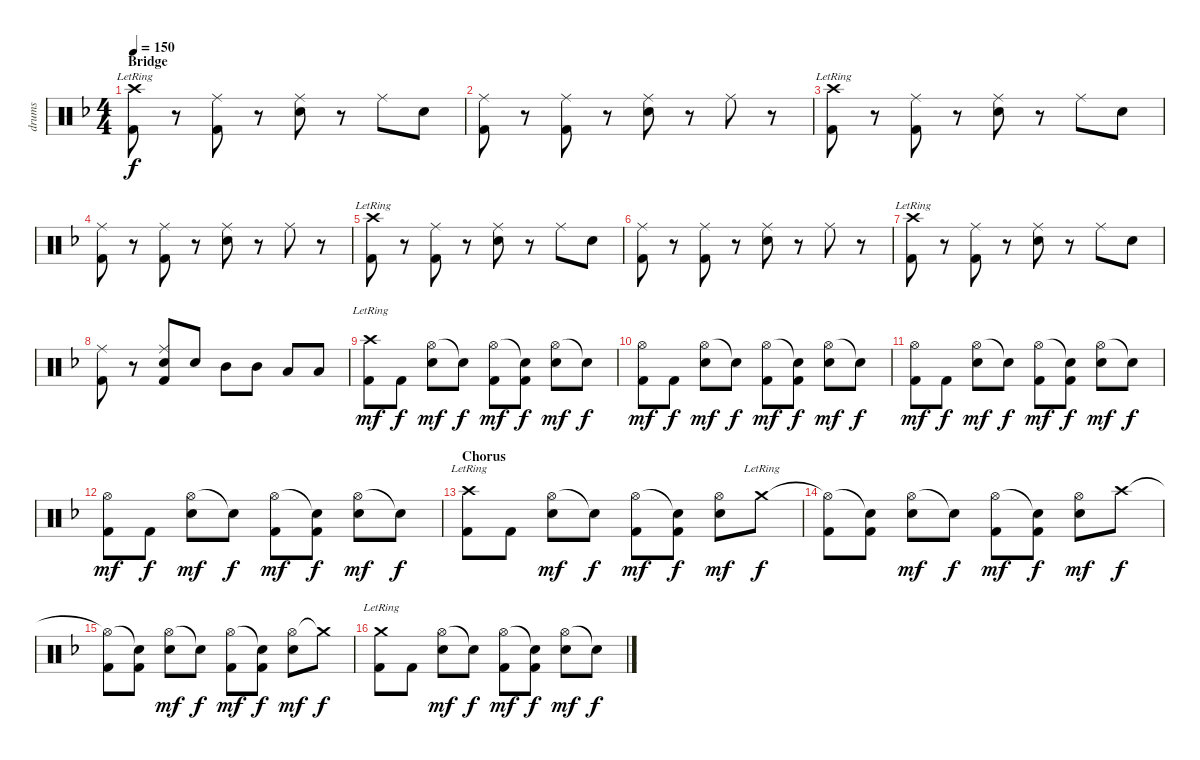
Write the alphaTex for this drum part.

\track ("drums" "drums") {instrument percussion}
\staff {score}
\articulation defaults
\ts (4 4)
\section ("" "Bridge")
\tempo 150
\clef neutral
\ks dminor
("Crash high (hit)"{lr} "Kick (hit) 2").8{dy f} r.8 ("Ride (middle)" "Kick (hit) 2").8 r.8 ("Ride (middle)" "Electric Snare (hit)").8 r.8 "Ride (middle)".8 "Electric Snare (hit)".8 |
("Ride (middle)" "Kick (hit) 2").8 r.8 ("Ride (middle)" "Kick (hit) 2").8 r.8 ("Ride (middle)" "Electric Snare (hit)").8 r.8 "Ride (middle)".8 r.8 |
("Crash high (hit)"{lr} "Kick (hit) 2").8 r.8 ("Ride (middle)" "Kick (hit) 2").8 r.8 ("Ride (middle)" "Electric Snare (hit)").8 r.8 "Ride (middle)".8 "Electric Snare (hit)".8 |
("Ride (middle)" "Kick (hit) 2").8 r.8 ("Ride (middle)" "Kick (hit) 2").8 r.8 ("Ride (middle)" "Electric Snare (hit)").8 r.8 "Ride (middle)".8 r.8 |
("Crash high (hit)"{lr} "Kick (hit) 2").8 r.8 ("Ride (middle)" "Kick (hit) 2").8 r.8 ("Ride (middle)" "Electric Snare (hit)").8 r.8 "Ride (middle)".8 "Electric Snare (hit)".8 |
("Ride (middle)" "Kick (hit) 2").8 r.8 ("Ride (middle)" "Kick (hit) 2").8 r.8 ("Ride (middle)" "Electric Snare (hit)").8 r.8 "Ride (middle)".8 r.8 |
("Crash high (hit)"{lr} "Kick (hit) 2").8 r.8 ("Ride (middle)" "Kick (hit) 2").8 r.8 ("Ride (middle)" "Electric Snare (hit)").8 r.8 "Ride (middle)".8 "Electric Snare (hit)".8 |
("Ride (middle)" "Kick (hit) 2").8 r.8 ("Ride (middle)" "Electric Snare (hit)" "Kick (hit) 2").8 "Electric Snare (hit)".8 "Mid Tom (hit)".8 "Mid Tom (hit)".8 "Low Tom (hit)".8 "Low Tom (hit)".8 |
("Crash high (hit)"{lr} "Kick (hit) 2").8{dy mf} "Kick (hit) 2".8{dy f} ("Hi-Hat (open)" "Electric Snare (hit)").8{dy mf} "Snare (hit)"{t}.8{dy f} ("Hi-Hat (open)" "Kick (hit) 2").8{dy mf} ("Snare (hit)"{t} "Kick (hit) 2").8{dy f} ("Hi-Hat (open)" "Electric Snare (hit)").8{dy mf} "Snare (hit)"{t}.8{dy f} |
("Hi-Hat (open)" "Kick (hit) 2").8{dy mf} "Kick (hit) 2".8{dy f} ("Hi-Hat (open)" "Electric Snare (hit)").8{dy mf} "Snare (hit)"{t}.8{dy f} ("Hi-Hat (open)" "Kick (hit) 2").8{dy mf} ("Snare (hit)"{t} "Kick (hit) 2").8{dy f} ("Hi-Hat (open)" "Electric Snare (hit)").8{dy mf} "Snare (hit)"{t}.8{dy f} |
("Hi-Hat (open)" "Kick (hit) 2").8{dy mf} "Kick (hit) 2".8{dy f} ("Hi-Hat (open)" "Electric Snare (hit)").8{dy mf} "Snare (hit)"{t}.8{dy f} ("Hi-Hat (open)" "Kick (hit) 2").8{dy mf} ("Snare (hit)"{t} "Kick (hit) 2").8{dy f} ("Hi-Hat (open)" "Electric Snare (hit)").8{dy mf} "Snare (hit)"{t}.8{dy f} |
("Hi-Hat (open)" "Kick (hit) 2").8{dy mf} "Kick (hit) 2".8{dy f} ("Hi-Hat (open)" "Electric Snare (hit)").8{dy mf} "Snare (hit)"{t}.8{dy f} ("Hi-Hat (open)" "Kick (hit) 2").8{dy mf} ("Snare (hit)"{t} "Kick (hit) 2").8{dy f} ("Hi-Hat (open)" "Electric Snare (hit)").8{dy mf} "Snare (hit)"{t}.8{dy f} |
\section ("" "Chorus")
("Crash high (hit)"{lr} "Kick (hit) 2").8 "Kick (hit) 2".8 ("Hi-Hat (open)" "Electric Snare (hit)").8{dy mf} "Snare (hit)"{t}.8{dy f} ("Hi-Hat (open)" "Kick (hit) 2").8{dy mf} ("Snare (hit)"{t} "Kick (hit) 2").8{dy f} ("Hi-Hat (open)" "Electric Snare (hit)").8{dy mf} "Crash medium (hit)"{lr}.8{dy f} |
("Hi-Hat (open)"{t} "Kick (hit) 2").8 ("Snare (hit)"{t} "Kick (hit) 2").8 ("Hi-Hat (open)" "Electric Snare (hit)").8{dy mf} "Snare (hit)"{t}.8{dy f} ("Hi-Hat (open)" "Kick (hit) 2").8{dy mf} ("Snare (hit)"{t} "Kick (hit) 2").8{dy f} ("Hi-Hat (open)" "Electric Snare (hit)").8{dy mf} "Crash high (hit)".8{dy f} |
("Hi-Hat (open)"{t} "Kick (hit) 2").8 ("Snare (hit)"{t} "Kick (hit) 2").8 ("Hi-Hat (open)" "Electric Snare (hit)").8{dy mf} "Snare (hit)"{t}.8{dy f} ("Hi-Hat (open)" "Kick (hit) 2").8{dy mf} ("Snare (hit)"{t} "Kick (hit) 2").8{dy f} ("Hi-Hat (open)" "Electric Snare (hit)").8{dy mf} "Crash medium (hit)"{t}.8{dy f} |
("Crash medium (hit)"{lr} "Kick (hit) 2").8 "Kick (hit) 2".8 ("Hi-Hat (open)" "Electric Snare (hit)").8{dy mf} "Snare (hit)"{t}.8{dy f} ("Hi-Hat (open)" "Kick (hit) 2").8{dy mf} ("Snare (hit)"{t} "Kick (hit) 2").8{dy f} ("Hi-Hat (open)" "Electric Snare (hit)").8{dy mf} "Snare (hit)"{t}.8{dy f}
